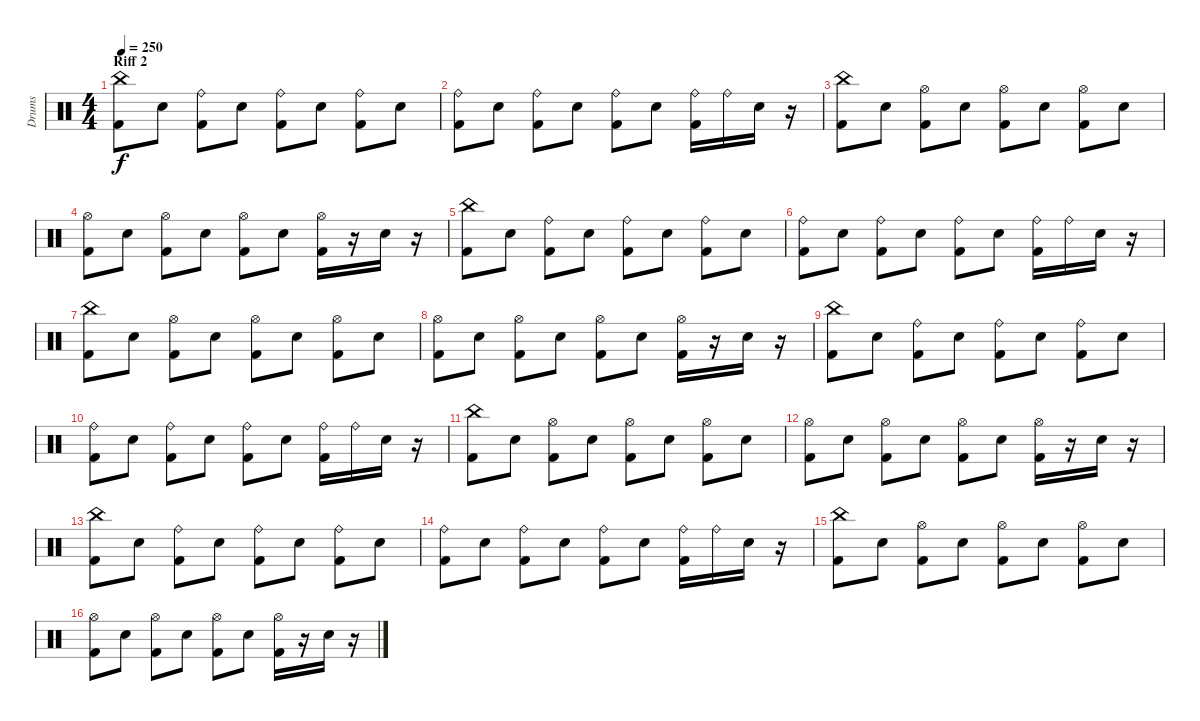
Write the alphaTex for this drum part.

\track ("Drums" "Drums") {instrument percussion}
\staff {score}
\articulation defaults
\ts (4 4)
\section ("" "Riff 2")
\tempo 250
\clef neutral
\ks c
("Kick (hit) 2" "China (hit)").8{dy f} "Snare (hit) 2".8 ("Kick (hit) 2" "Ride (bell)").8 "Snare (hit) 2".8 ("Kick (hit) 2" "Ride (bell)").8 "Snare (hit) 2".8 ("Kick (hit) 2" "Ride (bell)").8 "Snare (hit) 2".8 |
("Kick (hit) 2" "Ride (bell)").8 "Snare (hit) 2".8 ("Kick (hit) 2" "Ride (bell)").8 "Snare (hit) 2".8 ("Kick (hit) 2" "Ride (bell)").8 "Snare (hit) 2".8 ("Kick (hit) 2" "Ride (bell)").16 "Ride (bell)".16 "Snare (hit) 2".16 r.16 |
("Kick (hit) 2" "China (hit)").8 "Snare (hit) 2".8 ("Kick (hit) 2" "Hi-Hat (open)").8 "Snare (hit) 2".8 ("Kick (hit) 2" "Hi-Hat (open)").8 "Snare (hit) 2".8 ("Kick (hit) 2" "Hi-Hat (open)").8 "Snare (hit) 2".8 |
("Kick (hit) 2" "Hi-Hat (open)").8 "Snare (hit) 2".8 ("Kick (hit) 2" "Hi-Hat (open)").8 "Snare (hit) 2".8 ("Kick (hit) 2" "Hi-Hat (open)").8 "Snare (hit) 2".8 ("Kick (hit) 2" "Hi-Hat (open)").16 r.16 "Snare (hit) 2".16 r.16 |
("Kick (hit) 2" "China (hit)").8 "Snare (hit) 2".8 ("Kick (hit) 2" "Ride (bell)").8 "Snare (hit) 2".8 ("Kick (hit) 2" "Ride (bell)").8 "Snare (hit) 2".8 ("Kick (hit) 2" "Ride (bell)").8 "Snare (hit) 2".8 |
("Kick (hit) 2" "Ride (bell)").8 "Snare (hit) 2".8 ("Kick (hit) 2" "Ride (bell)").8 "Snare (hit) 2".8 ("Kick (hit) 2" "Ride (bell)").8 "Snare (hit) 2".8 ("Kick (hit) 2" "Ride (bell)").16 "Ride (bell)".16 "Snare (hit) 2".16 r.16 |
("Kick (hit) 2" "China (hit)").8 "Snare (hit) 2".8 ("Kick (hit) 2" "Hi-Hat (open)").8 "Snare (hit) 2".8 ("Kick (hit) 2" "Hi-Hat (open)").8 "Snare (hit) 2".8 ("Kick (hit) 2" "Hi-Hat (open)").8 "Snare (hit) 2".8 |
("Kick (hit) 2" "Hi-Hat (open)").8 "Snare (hit) 2".8 ("Kick (hit) 2" "Hi-Hat (open)").8 "Snare (hit) 2".8 ("Kick (hit) 2" "Hi-Hat (open)").8 "Snare (hit) 2".8 ("Kick (hit) 2" "Hi-Hat (open)").16 r.16 "Snare (hit) 2".16 r.16 |
("Kick (hit) 2" "China (hit)").8 "Snare (hit) 2".8 ("Kick (hit) 2" "Ride (bell)").8 "Snare (hit) 2".8 ("Kick (hit) 2" "Ride (bell)").8 "Snare (hit) 2".8 ("Kick (hit) 2" "Ride (bell)").8 "Snare (hit) 2".8 |
("Kick (hit) 2" "Ride (bell)").8 "Snare (hit) 2".8 ("Kick (hit) 2" "Ride (bell)").8 "Snare (hit) 2".8 ("Kick (hit) 2" "Ride (bell)").8 "Snare (hit) 2".8 ("Kick (hit) 2" "Ride (bell)").16 "Ride (bell)".16 "Snare (hit) 2".16 r.16 |
("Kick (hit) 2" "China (hit)").8 "Snare (hit) 2".8 ("Kick (hit) 2" "Hi-Hat (open)").8 "Snare (hit) 2".8 ("Kick (hit) 2" "Hi-Hat (open)").8 "Snare (hit) 2".8 ("Kick (hit) 2" "Hi-Hat (open)").8 "Snare (hit) 2".8 |
("Kick (hit) 2" "Hi-Hat (open)").8 "Snare (hit) 2".8 ("Kick (hit) 2" "Hi-Hat (open)").8 "Snare (hit) 2".8 ("Kick (hit) 2" "Hi-Hat (open)").8 "Snare (hit) 2".8 ("Kick (hit) 2" "Hi-Hat (open)").16 r.16 "Snare (hit) 2".16 r.16 |
("Kick (hit) 2" "China (hit)").8 "Snare (hit) 2".8 ("Kick (hit) 2" "Ride (bell)").8 "Snare (hit) 2".8 ("Kick (hit) 2" "Ride (bell)").8 "Snare (hit) 2".8 ("Kick (hit) 2" "Ride (bell)").8 "Snare (hit) 2".8 |
("Kick (hit) 2" "Ride (bell)").8 "Snare (hit) 2".8 ("Kick (hit) 2" "Ride (bell)").8 "Snare (hit) 2".8 ("Kick (hit) 2" "Ride (bell)").8 "Snare (hit) 2".8 ("Kick (hit) 2" "Ride (bell)").16 "Ride (bell)".16 "Snare (hit) 2".16 r.16 |
("Kick (hit) 2" "China (hit)").8 "Snare (hit) 2".8 ("Kick (hit) 2" "Hi-Hat (open)").8 "Snare (hit) 2".8 ("Kick (hit) 2" "Hi-Hat (open)").8 "Snare (hit) 2".8 ("Kick (hit) 2" "Hi-Hat (open)").8 "Snare (hit) 2".8 |
("Kick (hit) 2" "Hi-Hat (open)").8 "Snare (hit) 2".8 ("Kick (hit) 2" "Hi-Hat (open)").8 "Snare (hit) 2".8 ("Kick (hit) 2" "Hi-Hat (open)").8 "Snare (hit) 2".8 ("Kick (hit) 2" "Hi-Hat (open)").16 r.16 "Snare (hit) 2".16 r.16
